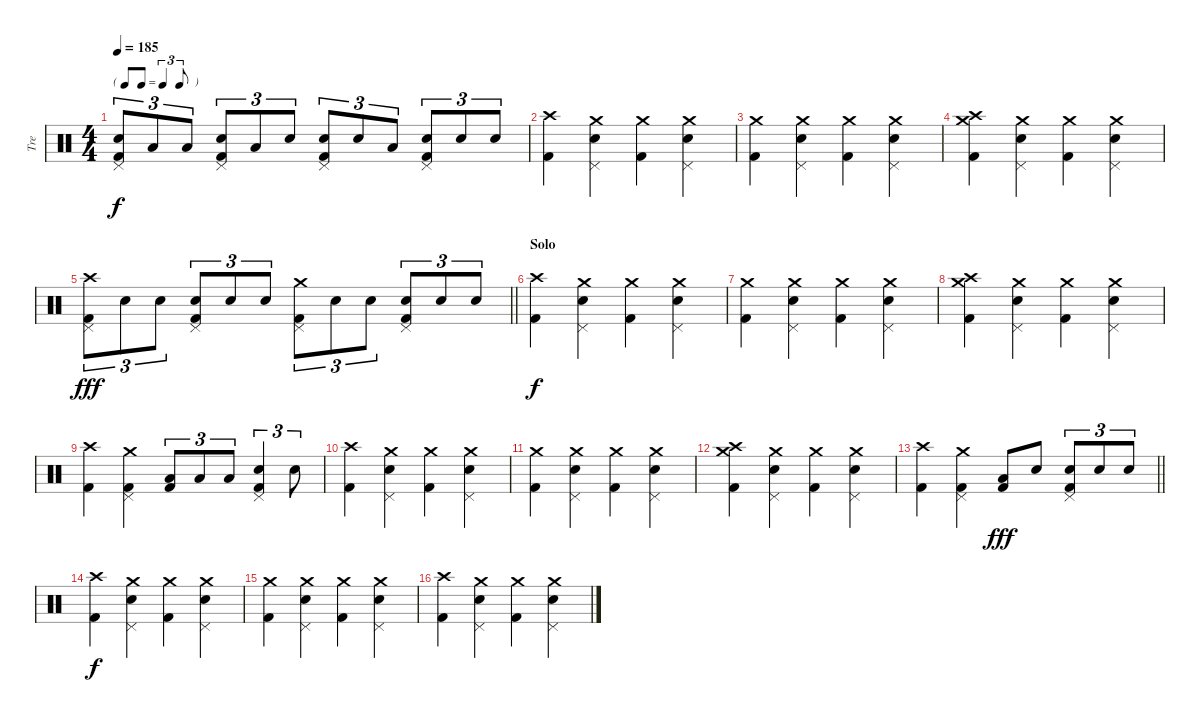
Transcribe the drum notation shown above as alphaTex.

\track ("Tre" "Tre") {instrument percussion}
\staff {score}
\articulation defaults
\ts (4 4)
\tf triplet8th
\tempo 185
\clef neutral
\ks c
("Snare (hit) 2" "Pedal Hi-Hat (hit)" "Kick (hit) 2").8{tu (3 2) dy f} "Low Tom (hit)".8{tu (3 2)} "Low Tom (hit)".8{tu (3 2)} ("Snare (hit) 2" "Pedal Hi-Hat (hit)" "Kick (hit) 2").8{tu (3 2)} "Low Tom (hit)".8{tu (3 2)} "Snare (hit) 2".8{tu (3 2)} ("Snare (hit) 2" "Pedal Hi-Hat (hit)" "Kick (hit) 2").8{tu (3 2)} "Snare (hit) 2".8{tu (3 2)} "Low Tom (hit)".8{tu (3 2)} ("Snare (hit) 2" "Pedal Hi-Hat (hit)" "Kick (hit) 2").8{tu (3 2)} "Snare (hit) 2".8{tu (3 2)} "Snare (hit) 2".8{tu (3 2)} |
("Crash high (hit)" "Kick (hit) 2").4 ("Crash medium (hit)" "Snare (hit) 2" "Pedal Hi-Hat (hit)").4 ("Crash medium (hit)" "Kick (hit) 2").4 ("Crash medium (hit)" "Snare (hit) 2" "Pedal Hi-Hat (hit)").4 |
("Crash medium (hit)" "Kick (hit) 2").4 ("Crash medium (hit)" "Snare (hit) 2" "Pedal Hi-Hat (hit)").4 ("Crash medium (hit)" "Kick (hit) 2").4 ("Crash medium (hit)" "Snare (hit) 2" "Pedal Hi-Hat (hit)").4 |
("Crash medium (hit)" "Crash high (hit)" "Kick (hit) 2").4 ("Crash medium (hit)" "Snare (hit) 2" "Pedal Hi-Hat (hit)").4 ("Crash medium (hit)" "Kick (hit) 2").4 ("Crash medium (hit)" "Snare (hit) 2" "Pedal Hi-Hat (hit)").4 |
\barLineRight lightlight
("Crash high (hit)" "Pedal Hi-Hat (hit)" "Kick (hit) 2").8{tu (3 2) dy fff} "Snare (hit) 2".8{tu (3 2)} "Snare (hit) 2".8{tu (3 2)} ("Snare (hit) 2" "Pedal Hi-Hat (hit)" "Kick (hit) 2").8{tu (3 2)} "Snare (hit) 2".8{tu (3 2)} "Snare (hit) 2".8{tu (3 2)} ("Crash medium (hit)" "Pedal Hi-Hat (hit)" "Kick (hit) 2").8{tu (3 2)} "Snare (hit) 2".8{tu (3 2)} "Snare (hit) 2".8{tu (3 2)} ("Snare (hit) 2" "Pedal Hi-Hat (hit)" "Kick (hit) 2").8{tu (3 2)} "Snare (hit) 2".8{tu (3 2)} "Snare (hit) 2".8{tu (3 2)} |
\section ("" "Solo")
("Crash high (hit)" "Kick (hit) 2").4{dy f} ("Crash medium (hit)" "Snare (hit) 2" "Pedal Hi-Hat (hit)").4 ("Crash medium (hit)" "Kick (hit) 2").4 ("Crash medium (hit)" "Snare (hit) 2" "Pedal Hi-Hat (hit)").4 |
("Crash medium (hit)" "Kick (hit) 2").4 ("Crash medium (hit)" "Snare (hit) 2" "Pedal Hi-Hat (hit)").4 ("Crash medium (hit)" "Kick (hit) 2").4 ("Crash medium (hit)" "Snare (hit) 2" "Pedal Hi-Hat (hit)").4 |
("Crash medium (hit)" "Crash high (hit)" "Kick (hit) 2").4 ("Crash medium (hit)" "Snare (hit) 2" "Pedal Hi-Hat (hit)").4 ("Crash medium (hit)" "Kick (hit) 2").4 ("Crash medium (hit)" "Snare (hit) 2" "Pedal Hi-Hat (hit)").4 |
("Crash high (hit)" "Kick (hit) 2").4 ("Crash medium (hit)" "Pedal Hi-Hat (hit)" "Kick (hit) 2").4 ("Low Tom (hit)" "Kick (hit) 2").8{tu (3 2)} "Low Tom (hit)".8{tu (3 2)} "Low Tom (hit)".8{tu (3 2)} ("Snare (hit) 2" "Pedal Hi-Hat (hit)" "Kick (hit) 2").4{tu (3 2)} "Snare (hit) 2".8{tu (3 2)} |
("Crash high (hit)" "Kick (hit) 2").4 ("Crash medium (hit)" "Snare (hit) 2" "Pedal Hi-Hat (hit)").4 ("Crash medium (hit)" "Kick (hit) 2").4 ("Crash medium (hit)" "Snare (hit) 2" "Pedal Hi-Hat (hit)").4 |
("Crash medium (hit)" "Kick (hit) 2").4 ("Crash medium (hit)" "Snare (hit) 2" "Pedal Hi-Hat (hit)").4 ("Crash medium (hit)" "Kick (hit) 2").4 ("Crash medium (hit)" "Snare (hit) 2" "Pedal Hi-Hat (hit)").4 |
("Crash medium (hit)" "Crash high (hit)" "Kick (hit) 2").4 ("Crash medium (hit)" "Snare (hit) 2" "Pedal Hi-Hat (hit)").4 ("Crash medium (hit)" "Kick (hit) 2").4 ("Crash medium (hit)" "Snare (hit) 2" "Pedal Hi-Hat (hit)").4 |
\barLineRight lightlight
("Crash high (hit)" "Kick (hit) 2").4 ("Crash medium (hit)" "Pedal Hi-Hat (hit)" "Kick (hit) 2").4 ("Low Tom (hit)" "Kick (hit) 2").8{dy fff} "Snare (hit) 2".8 ("Snare (hit) 2" "Pedal Hi-Hat (hit)" "Kick (hit) 2").8{tu (3 2)} "Snare (hit) 2".8{tu (3 2)} "Snare (hit) 2".8{tu (3 2)} |
("Crash high (hit)" "Kick (hit) 2").4{dy f} ("Crash medium (hit)" "Snare (hit) 2" "Pedal Hi-Hat (hit)").4 ("Crash medium (hit)" "Kick (hit) 2").4 ("Crash medium (hit)" "Snare (hit) 2" "Pedal Hi-Hat (hit)").4 |
("Crash medium (hit)" "Kick (hit) 2").4 ("Crash medium (hit)" "Snare (hit) 2" "Pedal Hi-Hat (hit)").4 ("Crash medium (hit)" "Kick (hit) 2").4 ("Crash medium (hit)" "Snare (hit) 2" "Pedal Hi-Hat (hit)").4 |
("Crash high (hit)" "Kick (hit) 2").4 ("Crash medium (hit)" "Snare (hit) 2" "Pedal Hi-Hat (hit)").4 ("Crash medium (hit)" "Kick (hit) 2").4 ("Crash medium (hit)" "Snare (hit) 2" "Pedal Hi-Hat (hit)").4
